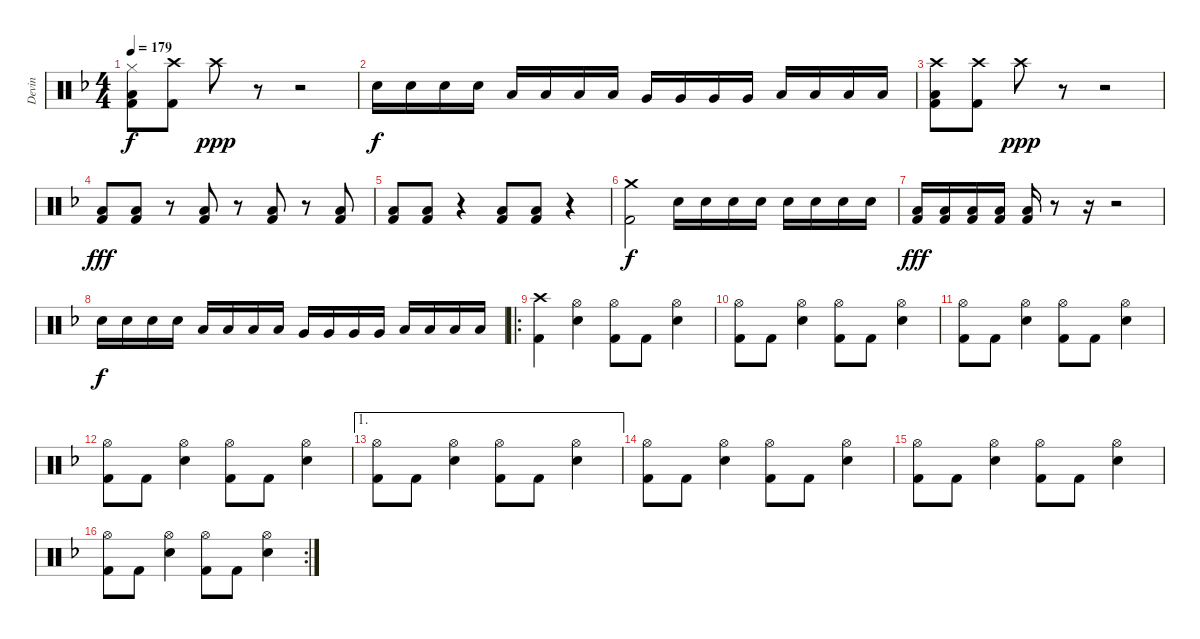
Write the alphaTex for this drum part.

\track ("Devin" "Devin") {instrument percussion}
\staff {score}
\articulation defaults
\ts (4 4)
\tempo 179
\clef neutral
\ks f
("Hi-Hat (closed)" "Low Floor Tom (hit)" "Kick (hit) 2").8{dy f} ("Crash high (hit)" "Kick (hit) 2").8 "Crash high (hit)".8{dy ppp} r.8 r.2 |
"Electric Snare (hit)".16{dy f} "Electric Snare (hit)".16 "Electric Snare (hit)".16 "Electric Snare (hit)".16 "Low Tom (hit)".16 "Low Tom (hit)".16 "Low Tom (hit)".16 "Low Tom (hit)".16 "Very Low Tom (hit)".16 "Very Low Tom (hit)".16 "Very Low Tom (hit)".16 "Very Low Tom (hit)".16 "Low Floor Tom (hit)".16 "Low Floor Tom (hit)".16 "Low Floor Tom (hit)".16 "Low Floor Tom (hit)".16 |
("Crash high (hit)" "Low Floor Tom (hit)" "Kick (hit) 2").8 ("Crash high (hit)" "Kick (hit) 2").8 "Crash high (hit)".8{dy ppp} r.8 r.2 |
("Low Floor Tom (hit)" "Kick (hit) 2").8{dy fff} ("Low Floor Tom (hit)" "Kick (hit) 2").8 r.8 ("Low Floor Tom (hit)" "Kick (hit) 2").8 r.8 ("Low Floor Tom (hit)" "Kick (hit) 2").8 r.8 ("Low Floor Tom (hit)" "Kick (hit) 2").8 |
("Low Floor Tom (hit)" "Kick (hit) 2").8 ("Low Floor Tom (hit)" "Kick (hit) 2").8 r.4 ("Low Floor Tom (hit)" "Kick (hit) 2").8 ("Low Floor Tom (hit)" "Kick (hit) 2").8 r.4 |
("Crash medium (hit)" "Kick (hit) 2").2{dy f} "Electric Snare (hit)".16 "Electric Snare (hit)".16 "Electric Snare (hit)".16 "Electric Snare (hit)".16 "Electric Snare (hit)".16 "Electric Snare (hit)".16 "Electric Snare (hit)".16 "Electric Snare (hit)".16 |
("Low Floor Tom (hit)" "Kick (hit) 2").16{dy fff} ("Low Floor Tom (hit)" "Kick (hit) 2").16 ("Low Floor Tom (hit)" "Kick (hit) 2").16 ("Low Floor Tom (hit)" "Kick (hit) 2").16 ("Low Floor Tom (hit)" "Kick (hit) 2").16 r.8 r.16 r.2 |
"Electric Snare (hit)".16{dy f} "Electric Snare (hit)".16 "Electric Snare (hit)".16 "Electric Snare (hit)".16 "Low Tom (hit)".16 "Low Tom (hit)".16 "Low Tom (hit)".16 "Low Tom (hit)".16 "Very Low Tom (hit)".16 "Very Low Tom (hit)".16 "Very Low Tom (hit)".16 "Very Low Tom (hit)".16 "Low Floor Tom (hit)".16 "Low Floor Tom (hit)".16 "Low Floor Tom (hit)".16 "Low Floor Tom (hit)".16 |
\ro
("Crash high (hit)" "Kick (hit) 2").4 ("Hi-Hat (open)" "Electric Snare (hit)").4 ("Hi-Hat (open)" "Kick (hit) 2").8 "Kick (hit) 2".8 ("Hi-Hat (open)" "Electric Snare (hit)").4 |
("Hi-Hat (open)" "Kick (hit) 2").8 "Kick (hit) 2".8 ("Hi-Hat (open)" "Electric Snare (hit)").4 ("Hi-Hat (open)" "Kick (hit) 2").8 "Kick (hit) 2".8 ("Hi-Hat (open)" "Electric Snare (hit)").4 |
("Hi-Hat (open)" "Kick (hit) 2").8 "Kick (hit) 2".8 ("Hi-Hat (open)" "Electric Snare (hit)").4 ("Hi-Hat (open)" "Kick (hit) 2").8 "Kick (hit) 2".8 ("Hi-Hat (open)" "Electric Snare (hit)").4 |
("Hi-Hat (open)" "Kick (hit) 2").8 "Kick (hit) 2".8 ("Hi-Hat (open)" "Electric Snare (hit)").4 ("Hi-Hat (open)" "Kick (hit) 2").8 "Kick (hit) 2".8 ("Hi-Hat (open)" "Electric Snare (hit)").4 |
\ae 1
("Hi-Hat (open)" "Kick (hit) 2").8 "Kick (hit) 2".8 ("Hi-Hat (open)" "Electric Snare (hit)").4 ("Hi-Hat (open)" "Kick (hit) 2").8 "Kick (hit) 2".8 ("Hi-Hat (open)" "Electric Snare (hit)").4 |
("Hi-Hat (open)" "Kick (hit) 2").8 "Kick (hit) 2".8 ("Hi-Hat (open)" "Electric Snare (hit)").4 ("Hi-Hat (open)" "Kick (hit) 2").8 "Kick (hit) 2".8 ("Hi-Hat (open)" "Electric Snare (hit)").4 |
("Hi-Hat (open)" "Kick (hit) 2").8 "Kick (hit) 2".8 ("Hi-Hat (open)" "Electric Snare (hit)").4 ("Hi-Hat (open)" "Kick (hit) 2").8 "Kick (hit) 2".8 ("Hi-Hat (open)" "Electric Snare (hit)").4 |
\rc 2
("Hi-Hat (open)" "Kick (hit) 2").8 "Kick (hit) 2".8 ("Hi-Hat (open)" "Electric Snare (hit)").4 ("Hi-Hat (open)" "Kick (hit) 2").8 "Kick (hit) 2".8 ("Hi-Hat (open)" "Electric Snare (hit)").4
